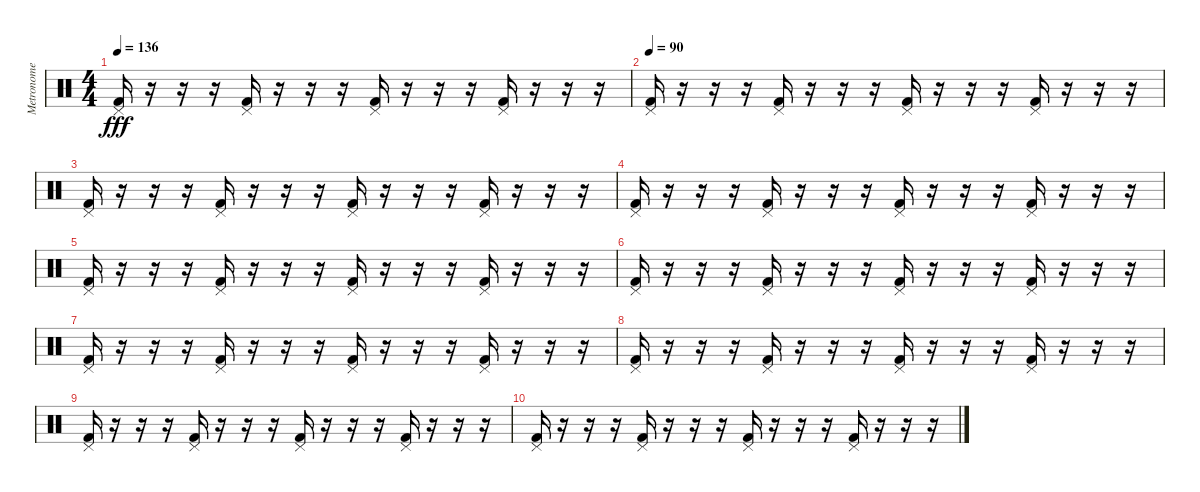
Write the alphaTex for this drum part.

\track ("Metronome" "Metronome") {mute instrument percussion}
\staff {score}
\articulation defaults
\ts (4 4)
\tempo 136
\clef neutral
\ks c
("Pedal Hi-Hat (hit)" "Kick (hit) 2").16{dy fff} r.16 r.16 r.16 ("Pedal Hi-Hat (hit)" "Kick (hit) 2").16 r.16 r.16 r.16 ("Pedal Hi-Hat (hit)" "Kick (hit) 2").16 r.16 r.16 r.16 ("Pedal Hi-Hat (hit)" "Kick (hit) 2").16 r.16 r.16 r.16 |
\tempo 90
("Pedal Hi-Hat (hit)" "Kick (hit) 2").16 r.16 r.16 r.16 ("Pedal Hi-Hat (hit)" "Kick (hit) 2").16 r.16 r.16 r.16 ("Pedal Hi-Hat (hit)" "Kick (hit) 2").16 r.16 r.16 r.16 ("Pedal Hi-Hat (hit)" "Kick (hit) 2").16 r.16 r.16 r.16 |
("Pedal Hi-Hat (hit)" "Kick (hit) 2").16 r.16 r.16 r.16 ("Pedal Hi-Hat (hit)" "Kick (hit) 2").16 r.16 r.16 r.16 ("Pedal Hi-Hat (hit)" "Kick (hit) 2").16 r.16 r.16 r.16 ("Pedal Hi-Hat (hit)" "Kick (hit) 2").16 r.16 r.16 r.16 |
("Pedal Hi-Hat (hit)" "Kick (hit) 2").16 r.16 r.16 r.16 ("Pedal Hi-Hat (hit)" "Kick (hit) 2").16 r.16 r.16 r.16 ("Pedal Hi-Hat (hit)" "Kick (hit) 2").16 r.16 r.16 r.16 ("Pedal Hi-Hat (hit)" "Kick (hit) 2").16 r.16 r.16 r.16 |
("Pedal Hi-Hat (hit)" "Kick (hit) 2").16 r.16 r.16 r.16 ("Pedal Hi-Hat (hit)" "Kick (hit) 2").16 r.16 r.16 r.16 ("Pedal Hi-Hat (hit)" "Kick (hit) 2").16 r.16 r.16 r.16 ("Pedal Hi-Hat (hit)" "Kick (hit) 2").16 r.16 r.16 r.16 |
("Pedal Hi-Hat (hit)" "Kick (hit) 2").16 r.16 r.16 r.16 ("Pedal Hi-Hat (hit)" "Kick (hit) 2").16 r.16 r.16 r.16 ("Pedal Hi-Hat (hit)" "Kick (hit) 2").16 r.16 r.16 r.16 ("Pedal Hi-Hat (hit)" "Kick (hit) 2").16 r.16 r.16 r.16 |
("Pedal Hi-Hat (hit)" "Kick (hit) 2").16 r.16 r.16 r.16 ("Pedal Hi-Hat (hit)" "Kick (hit) 2").16 r.16 r.16 r.16 ("Pedal Hi-Hat (hit)" "Kick (hit) 2").16 r.16 r.16 r.16 ("Pedal Hi-Hat (hit)" "Kick (hit) 2").16 r.16 r.16 r.16 |
("Pedal Hi-Hat (hit)" "Kick (hit) 2").16 r.16 r.16 r.16 ("Pedal Hi-Hat (hit)" "Kick (hit) 2").16 r.16 r.16 r.16 ("Pedal Hi-Hat (hit)" "Kick (hit) 2").16 r.16 r.16 r.16 ("Pedal Hi-Hat (hit)" "Kick (hit) 2").16 r.16 r.16 r.16 |
("Pedal Hi-Hat (hit)" "Kick (hit) 2").16 r.16 r.16 r.16 ("Pedal Hi-Hat (hit)" "Kick (hit) 2").16 r.16 r.16 r.16 ("Pedal Hi-Hat (hit)" "Kick (hit) 2").16 r.16 r.16 r.16 ("Pedal Hi-Hat (hit)" "Kick (hit) 2").16 r.16 r.16 r.16 |
("Pedal Hi-Hat (hit)" "Kick (hit) 2").16 r.16 r.16 r.16 ("Pedal Hi-Hat (hit)" "Kick (hit) 2").16 r.16 r.16 r.16 ("Pedal Hi-Hat (hit)" "Kick (hit) 2").16 r.16 r.16 r.16 ("Pedal Hi-Hat (hit)" "Kick (hit) 2").16 r.16 r.16 r.16
